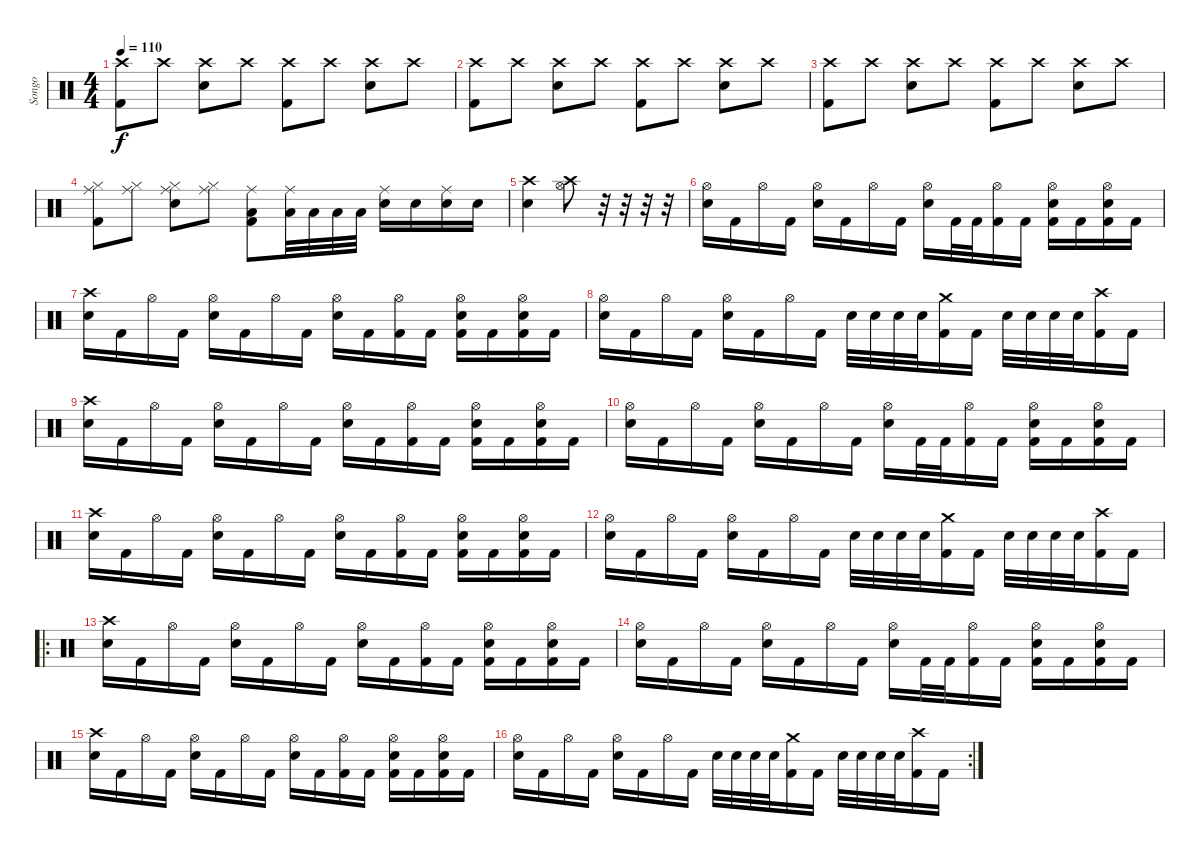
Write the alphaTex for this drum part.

\track ("Songo" "Songo") {instrument percussion}
\staff {score}
\articulation defaults
\ts (4 4)
\tempo 110
\clef neutral
\ks c
("Crash high (hit)" "Kick (hit) 2").8{dy f} "Crash high (hit)".8 ("Crash high (hit)" "Electric Snare (hit)").8 "Crash high (hit)".8 ("Crash high (hit)" "Kick (hit) 2").8 "Crash high (hit)".8 ("Crash high (hit)" "Electric Snare (hit)").8 "Crash high (hit)".8 |
("Crash high (hit)" "Kick (hit) 2").8 "Crash high (hit)".8 ("Crash high (hit)" "Electric Snare (hit)").8 "Crash high (hit)".8 ("Crash high (hit)" "Kick (hit) 2").8 "Crash high (hit)".8 ("Crash high (hit)" "Electric Snare (hit)").8 "Crash high (hit)".8 |
("Crash high (hit)" "Kick (hit) 2").8 "Crash high (hit)".8 ("Crash high (hit)" "Electric Snare (hit)").8 "Crash high (hit)".8 ("Crash high (hit)" "Kick (hit) 2").8 "Crash high (hit)".8 ("Crash high (hit)" "Electric Snare (hit)").8 "Crash high (hit)".8 |
("Ride (middle)" "Hi-Hat (closed)" "Kick (hit) 2").8 ("Ride (middle)" "Hi-Hat (closed)").8 ("Hi-Hat (closed)" "Ride (middle)" "Electric Snare (hit)").8 ("Ride (middle)" "Hi-Hat (closed)").8 ("Ride (middle)" "Low Tom (hit)" "Kick (hit) 2").8 ("Ride (middle)" "Low Tom (hit)").32 "Low Tom (hit)".32 "Low Tom (hit)".32 "Low Tom (hit)".32 ("Ride (middle)" "Electric Snare (hit)").16 "Electric Snare (hit)".16 ("Ride (middle)" "Electric Snare (hit)").16 "Electric Snare (hit)".16 |
("Snare (hit) 2" "Crash high (hit)").4 ("Crash high (hit)" "Hi-Hat (open)").8 r.32 r.32 r.32 r.32 |
("Hi-Hat (open)" "Snare (hit) 2").16 "Kick (hit) 2".16 "Hi-Hat (open)".16 "Kick (hit) 2".16 ("Hi-Hat (open)" "Snare (hit) 2").16 "Kick (hit) 2".16 "Hi-Hat (open)".16 "Kick (hit) 2".16 ("Hi-Hat (open)" "Snare (hit) 2").16 "Kick (hit) 2".32 "Kick (hit) 2".32 ("Hi-Hat (open)" "Kick (hit) 2").16 "Kick (hit) 2".16 ("Hi-Hat (open)" "Snare (hit) 2" "Kick (hit) 2").16 "Kick (hit) 2".16 ("Hi-Hat (open)" "Snare (hit) 2" "Kick (hit) 2").16 "Kick (hit) 2".16 |
("Crash high (hit)" "Snare (hit) 2").16 "Kick (hit) 2".16 "Hi-Hat (open)".16 "Kick (hit) 2".16 ("Hi-Hat (open)" "Snare (hit) 2").16 "Kick (hit) 2".16 "Hi-Hat (open)".16 "Kick (hit) 2".16 ("Hi-Hat (open)" "Snare (hit) 2").16 "Kick (hit) 2".16 ("Hi-Hat (open)" "Kick (hit) 2").16 "Kick (hit) 2".16 ("Hi-Hat (open)" "Snare (hit) 2" "Kick (hit) 2").16 "Kick (hit) 2".16 ("Hi-Hat (open)" "Snare (hit) 2" "Kick (hit) 2").16 "Kick (hit) 2".16 |
("Hi-Hat (open)" "Snare (hit) 2").16 "Kick (hit) 2".16 "Hi-Hat (open)".16 "Kick (hit) 2".16 ("Hi-Hat (open)" "Snare (hit) 2").16 "Kick (hit) 2".16 "Hi-Hat (open)".16 "Kick (hit) 2".16 "Snare (hit) 2".32 "Snare (hit) 2".32 "Snare (hit) 2".32 "Snare (hit) 2".32 ("Crash medium (hit)" "Kick (hit) 2").16 "Kick (hit) 2".16 "Snare (hit) 2".32 "Snare (hit) 2".32 "Snare (hit) 2".32 "Snare (hit) 2".32 ("Crash high (hit)" "Kick (hit) 2").16 "Kick (hit) 2".16 |
("Crash high (hit)" "Snare (hit) 2").16 "Kick (hit) 2".16 "Hi-Hat (open)".16 "Kick (hit) 2".16 ("Hi-Hat (open)" "Snare (hit) 2").16 "Kick (hit) 2".16 "Hi-Hat (open)".16 "Kick (hit) 2".16 ("Hi-Hat (open)" "Snare (hit) 2").16 "Kick (hit) 2".16 ("Hi-Hat (open)" "Kick (hit) 2").16 "Kick (hit) 2".16 ("Hi-Hat (open)" "Snare (hit) 2" "Kick (hit) 2").16 "Kick (hit) 2".16 ("Hi-Hat (open)" "Snare (hit) 2" "Kick (hit) 2").16 "Kick (hit) 2".16 |
("Hi-Hat (open)" "Snare (hit) 2").16 "Kick (hit) 2".16 "Hi-Hat (open)".16 "Kick (hit) 2".16 ("Hi-Hat (open)" "Snare (hit) 2").16 "Kick (hit) 2".16 "Hi-Hat (open)".16 "Kick (hit) 2".16 ("Hi-Hat (open)" "Snare (hit) 2").16 "Kick (hit) 2".32 "Kick (hit) 2".32 ("Hi-Hat (open)" "Kick (hit) 2").16 "Kick (hit) 2".16 ("Hi-Hat (open)" "Snare (hit) 2" "Kick (hit) 2").16 "Kick (hit) 2".16 ("Hi-Hat (open)" "Snare (hit) 2" "Kick (hit) 2").16 "Kick (hit) 2".16 |
("Crash high (hit)" "Snare (hit) 2").16 "Kick (hit) 2".16 "Hi-Hat (open)".16 "Kick (hit) 2".16 ("Hi-Hat (open)" "Snare (hit) 2").16 "Kick (hit) 2".16 "Hi-Hat (open)".16 "Kick (hit) 2".16 ("Hi-Hat (open)" "Snare (hit) 2").16 "Kick (hit) 2".16 ("Hi-Hat (open)" "Kick (hit) 2").16 "Kick (hit) 2".16 ("Hi-Hat (open)" "Snare (hit) 2" "Kick (hit) 2").16 "Kick (hit) 2".16 ("Hi-Hat (open)" "Snare (hit) 2" "Kick (hit) 2").16 "Kick (hit) 2".16 |
("Hi-Hat (open)" "Snare (hit) 2").16 "Kick (hit) 2".16 "Hi-Hat (open)".16 "Kick (hit) 2".16 ("Hi-Hat (open)" "Snare (hit) 2").16 "Kick (hit) 2".16 "Hi-Hat (open)".16 "Kick (hit) 2".16 "Snare (hit) 2".32 "Snare (hit) 2".32 "Snare (hit) 2".32 "Snare (hit) 2".32 ("Crash medium (hit)" "Kick (hit) 2").16 "Kick (hit) 2".16 "Snare (hit) 2".32 "Snare (hit) 2".32 "Snare (hit) 2".32 "Snare (hit) 2".32 ("Crash high (hit)" "Kick (hit) 2").16 "Kick (hit) 2".16 |
\ro
("Crash high (hit)" "Snare (hit) 2").16 "Kick (hit) 2".16 "Hi-Hat (open)".16 "Kick (hit) 2".16 ("Hi-Hat (open)" "Snare (hit) 2").16 "Kick (hit) 2".16 "Hi-Hat (open)".16 "Kick (hit) 2".16 ("Hi-Hat (open)" "Snare (hit) 2").16 "Kick (hit) 2".16 ("Hi-Hat (open)" "Kick (hit) 2").16 "Kick (hit) 2".16 ("Hi-Hat (open)" "Snare (hit) 2" "Kick (hit) 2").16 "Kick (hit) 2".16 ("Hi-Hat (open)" "Snare (hit) 2" "Kick (hit) 2").16 "Kick (hit) 2".16 |
("Hi-Hat (open)" "Snare (hit) 2").16 "Kick (hit) 2".16 "Hi-Hat (open)".16 "Kick (hit) 2".16 ("Hi-Hat (open)" "Snare (hit) 2").16 "Kick (hit) 2".16 "Hi-Hat (open)".16 "Kick (hit) 2".16 ("Hi-Hat (open)" "Snare (hit) 2").16 "Kick (hit) 2".32 "Kick (hit) 2".32 ("Hi-Hat (open)" "Kick (hit) 2").16 "Kick (hit) 2".16 ("Hi-Hat (open)" "Snare (hit) 2" "Kick (hit) 2").16 "Kick (hit) 2".16 ("Hi-Hat (open)" "Snare (hit) 2" "Kick (hit) 2").16 "Kick (hit) 2".16 |
("Crash high (hit)" "Snare (hit) 2").16 "Kick (hit) 2".16 "Hi-Hat (open)".16 "Kick (hit) 2".16 ("Hi-Hat (open)" "Snare (hit) 2").16 "Kick (hit) 2".16 "Hi-Hat (open)".16 "Kick (hit) 2".16 ("Hi-Hat (open)" "Snare (hit) 2").16 "Kick (hit) 2".16 ("Hi-Hat (open)" "Kick (hit) 2").16 "Kick (hit) 2".16 ("Hi-Hat (open)" "Snare (hit) 2" "Kick (hit) 2").16 "Kick (hit) 2".16 ("Hi-Hat (open)" "Snare (hit) 2" "Kick (hit) 2").16 "Kick (hit) 2".16 |
\rc 2
("Hi-Hat (open)" "Snare (hit) 2").16 "Kick (hit) 2".16 "Hi-Hat (open)".16 "Kick (hit) 2".16 ("Hi-Hat (open)" "Snare (hit) 2").16 "Kick (hit) 2".16 "Hi-Hat (open)".16 "Kick (hit) 2".16 "Snare (hit) 2".32 "Snare (hit) 2".32 "Snare (hit) 2".32 "Snare (hit) 2".32 ("Crash medium (hit)" "Kick (hit) 2").16 "Kick (hit) 2".16 "Snare (hit) 2".32 "Snare (hit) 2".32 "Snare (hit) 2".32 "Snare (hit) 2".32 ("Crash high (hit)" "Kick (hit) 2").16 "Kick (hit) 2".16
